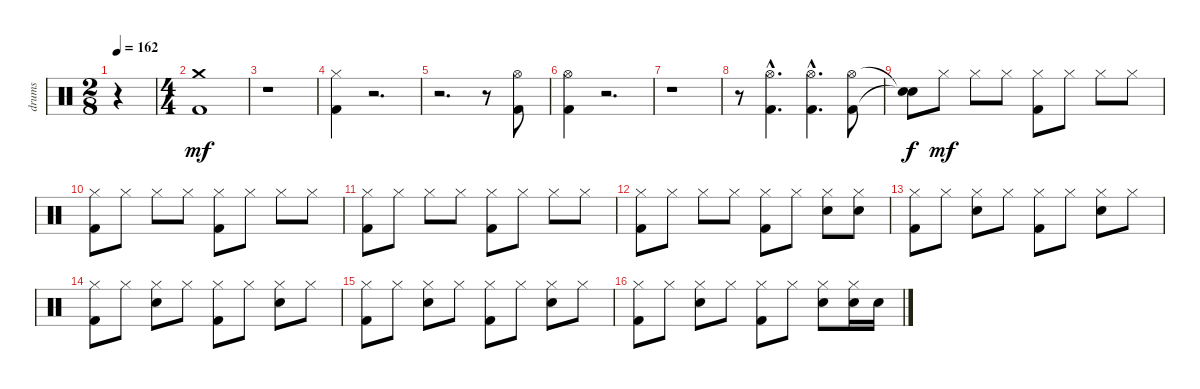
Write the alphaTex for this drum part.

\track ("drums" "drums") {instrument percussion}
\staff {score}
\articulation defaults
\ts (2 8)
\tempo 162
\clef neutral
\ks c
r.4{dy mf} |
\ts (4 4)
("Crash medium (hit)" "Kick (hit) 2").1 |
r.1 |
("Hi-Hat (closed)" "Kick (hit) 2").4 r.2{d} |
r.2{d} r.8 ("Hi-Hat (open)" "Kick (hit) 2").8 |
("Hi-Hat (open)" "Kick (hit) 2").4 r.2{d} |
r.1 |
r.8 ("Hi-Hat (open)"{hac} "Kick (hit) 2").4{d} ("Hi-Hat (open)"{hac} "Kick (hit) 2").4{d} ("Hi-Hat (open)" "Kick (hit) 2").8 |
("Snare (hit)"{t} "Snare (hit)"{t}).8{dy f} "Hi-Hat (closed)".8{dy mf} "Hi-Hat (closed)".8 "Hi-Hat (closed)".8 ("Hi-Hat (closed)" "Kick (hit) 2").8 "Hi-Hat (closed)".8 "Hi-Hat (closed)".8 "Hi-Hat (closed)".8 |
("Hi-Hat (closed)" "Kick (hit) 2").8 "Hi-Hat (closed)".8 "Hi-Hat (closed)".8 "Hi-Hat (closed)".8 ("Hi-Hat (closed)" "Kick (hit) 2").8 "Hi-Hat (closed)".8 "Hi-Hat (closed)".8 "Hi-Hat (closed)".8 |
("Hi-Hat (closed)" "Kick (hit) 2").8 "Hi-Hat (closed)".8 "Hi-Hat (closed)".8 "Hi-Hat (closed)".8 ("Hi-Hat (closed)" "Kick (hit) 2").8 "Hi-Hat (closed)".8 "Hi-Hat (closed)".8 "Hi-Hat (closed)".8 |
("Hi-Hat (closed)" "Kick (hit) 2").8 "Hi-Hat (closed)".8 "Hi-Hat (closed)".8 "Hi-Hat (closed)".8 ("Hi-Hat (closed)" "Kick (hit) 2").8 "Hi-Hat (closed)".8 ("Hi-Hat (closed)" "Snare (hit) 2").8 ("Hi-Hat (closed)" "Snare (hit) 2").8 |
("Hi-Hat (closed)" "Kick (hit) 2").8 "Hi-Hat (closed)".8 ("Hi-Hat (closed)" "Snare (hit) 2").8 "Hi-Hat (closed)".8 ("Hi-Hat (closed)" "Kick (hit) 2").8 "Hi-Hat (closed)".8 ("Hi-Hat (closed)" "Snare (hit) 2").8 "Hi-Hat (closed)".8 |
("Hi-Hat (closed)" "Kick (hit) 2").8 "Hi-Hat (closed)".8 ("Hi-Hat (closed)" "Snare (hit) 2").8 "Hi-Hat (closed)".8 ("Hi-Hat (closed)" "Kick (hit) 2").8 "Hi-Hat (closed)".8 ("Hi-Hat (closed)" "Snare (hit) 2").8 "Hi-Hat (closed)".8 |
("Hi-Hat (closed)" "Kick (hit) 2").8 "Hi-Hat (closed)".8 ("Hi-Hat (closed)" "Snare (hit) 2").8 "Hi-Hat (closed)".8 ("Hi-Hat (closed)" "Kick (hit) 2").8 "Hi-Hat (closed)".8 ("Hi-Hat (closed)" "Snare (hit) 2").8 "Hi-Hat (closed)".8 |
("Hi-Hat (closed)" "Kick (hit) 2").8 "Hi-Hat (closed)".8 ("Hi-Hat (closed)" "Snare (hit) 2").8 "Hi-Hat (closed)".8 ("Hi-Hat (closed)" "Kick (hit) 2").8 "Hi-Hat (closed)".8 ("Hi-Hat (closed)" "Snare (hit) 2").8 ("Hi-Hat (closed)" "Snare (hit) 2").16 "Snare (hit) 2".16
